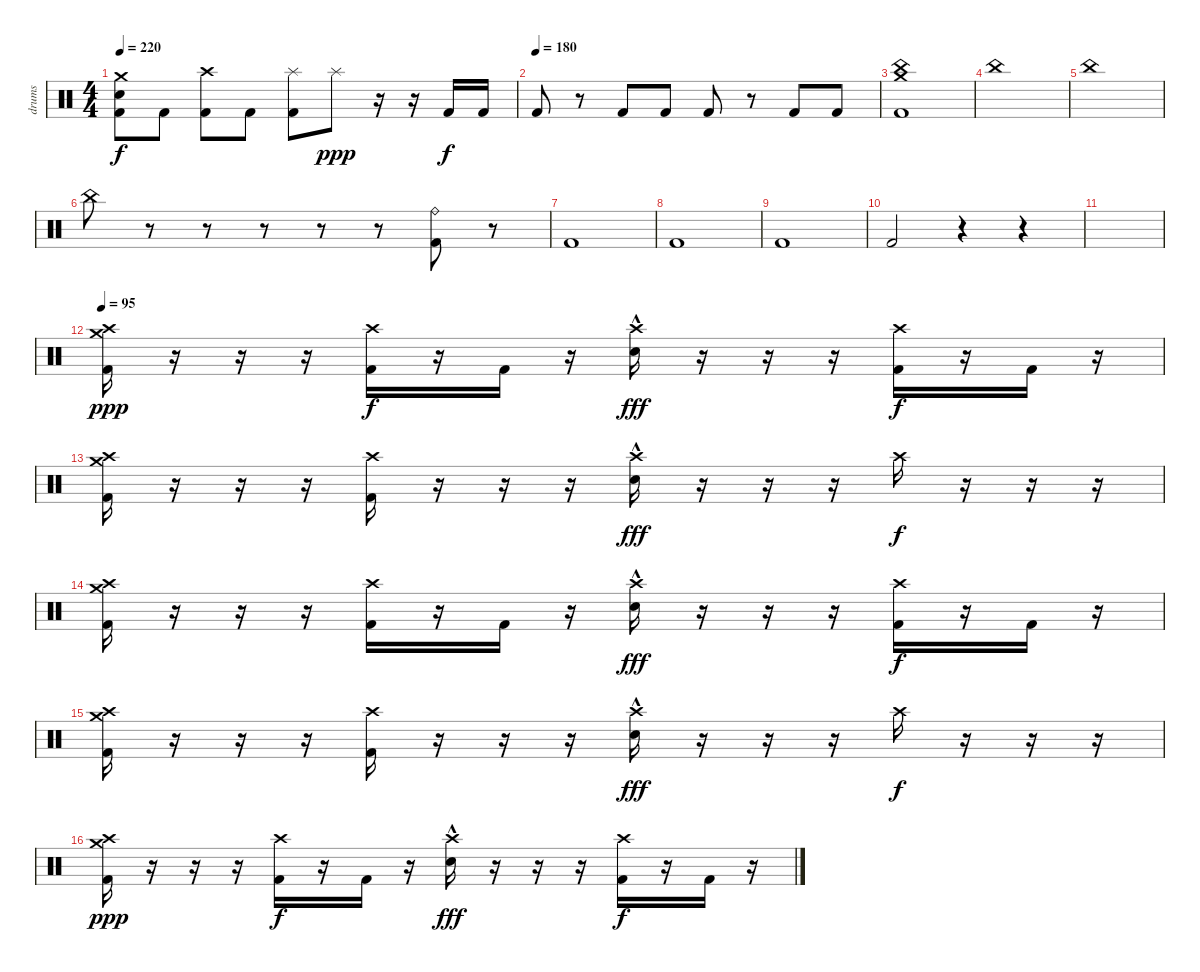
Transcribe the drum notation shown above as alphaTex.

\track ("drums" "drums") {instrument percussion}
\staff {score}
\articulation defaults
\ts (4 4)
\tempo 220
\clef neutral
\ks c
("Crash medium (hit)" "Electric Snare (hit)" "Kick (hit) 2").8{dy f} "Kick (hit) 2".8 ("Crash high (hit)" "Kick (hit) 2").8 "Kick (hit) 2".8 ("Splash (hit)" "Kick (hit) 2").8 "Splash (hit)".8{dy ppp} r.16 r.16 "Kick (hit) 2".16{dy f} "Kick (hit) 2".16 |
\tempo (180)
"Kick (hit) 2".8 r.8 "Kick (hit) 2".8 "Kick (hit) 2".8 "Kick (hit) 2".8 r.8 "Kick (hit) 2".8 "Kick (hit) 2".8 |
("China (hit)" "Crash medium (hit)" "Kick (hit) 2").1 |
"China (hit)".1 |
"China (hit)".1 |
"China (hit)".8 r.8 r.8 r.8 r.8 r.8 ("Ride (bell)" "Kick (hit) 2").8 r.8 |
"Kick (hit) 2".1 |
"Kick (hit) 2".1 |
"Kick (hit) 2".1 |
"Kick (hit) 2".2 r.4 r.4 |
|
\tempo 95
("Crash high (hit)" "Crash medium (hit)" "Kick (hit) 2").16{dy ppp} r.16 r.16 r.16 ("Crash high (hit)" "Kick (hit) 2").16{dy f} r.16 "Kick (hit) 2".16 r.16 ("Crash high (hit)" "Electric Snare (hit)"{hac}).16{dy fff} r.16 r.16 r.16 ("Crash high (hit)" "Kick (hit) 2").16{dy f} r.16 "Kick (hit) 2".16 r.16 |
("Crash high (hit)" "Crash medium (hit)" "Kick (hit) 2").16 r.16 r.16 r.16 ("Crash high (hit)" "Kick (hit) 2").16 r.16 r.16 r.16 ("Crash high (hit)" "Electric Snare (hit)"{hac}).16{dy fff} r.16 r.16 r.16 "Crash high (hit)".16{dy f} r.16 r.16 r.16 |
("Crash high (hit)" "Crash medium (hit)" "Kick (hit) 2").16 r.16 r.16 r.16 ("Crash high (hit)" "Kick (hit) 2").16 r.16 "Kick (hit) 2".16 r.16 ("Crash high (hit)" "Electric Snare (hit)"{hac}).16{dy fff} r.16 r.16 r.16 ("Crash high (hit)" "Kick (hit) 2").16{dy f} r.16 "Kick (hit) 2".16 r.16 |
("Crash high (hit)" "Crash medium (hit)" "Kick (hit) 2").16 r.16 r.16 r.16 ("Crash high (hit)" "Kick (hit) 2").16 r.16 r.16 r.16 ("Crash high (hit)" "Electric Snare (hit)"{hac}).16{dy fff} r.16 r.16 r.16 "Crash high (hit)".16{dy f} r.16 r.16 r.16 |
("Crash high (hit)" "Crash medium (hit)" "Kick (hit) 2").16{dy ppp} r.16 r.16 r.16 ("Crash high (hit)" "Kick (hit) 2").16{dy f} r.16 "Kick (hit) 2".16 r.16 ("Crash high (hit)" "Electric Snare (hit)"{hac}).16{dy fff} r.16 r.16 r.16 ("Crash high (hit)" "Kick (hit) 2").16{dy f} r.16 "Kick (hit) 2".16 r.16
